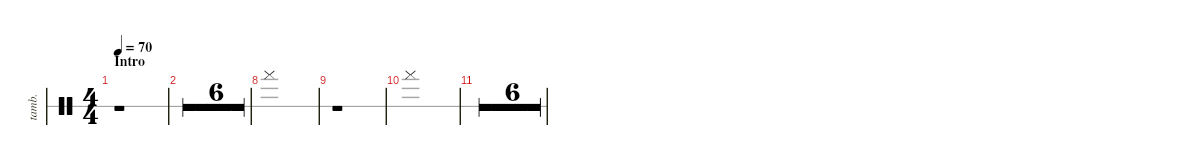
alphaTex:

\defaultSystemsLayout 4
\hideDynamics
\bracketExtendMode nobrackets
\otherSystemsTrackNameOrientation horizontal
\track ("Tambourine" "tamb.") {defaultSystemsLayout 4 multiBarRest instrument percussion}
\staff {score 1}
\articulation defaults
\ts (4 4)
\section ("" "Intro")
\tempo 70
\clef neutral
\ks c
r.1{dy mf} |
r.1 |
r.1 |
r.1 |
r.1 |
r.1 |
r.1 |
"Tambourine (hand)".1 |
r.1 |
"Tambourine (hand)".1 |
r.1 |
r.1 |
r.1 |
r.1 |
r.1 |
r.1
